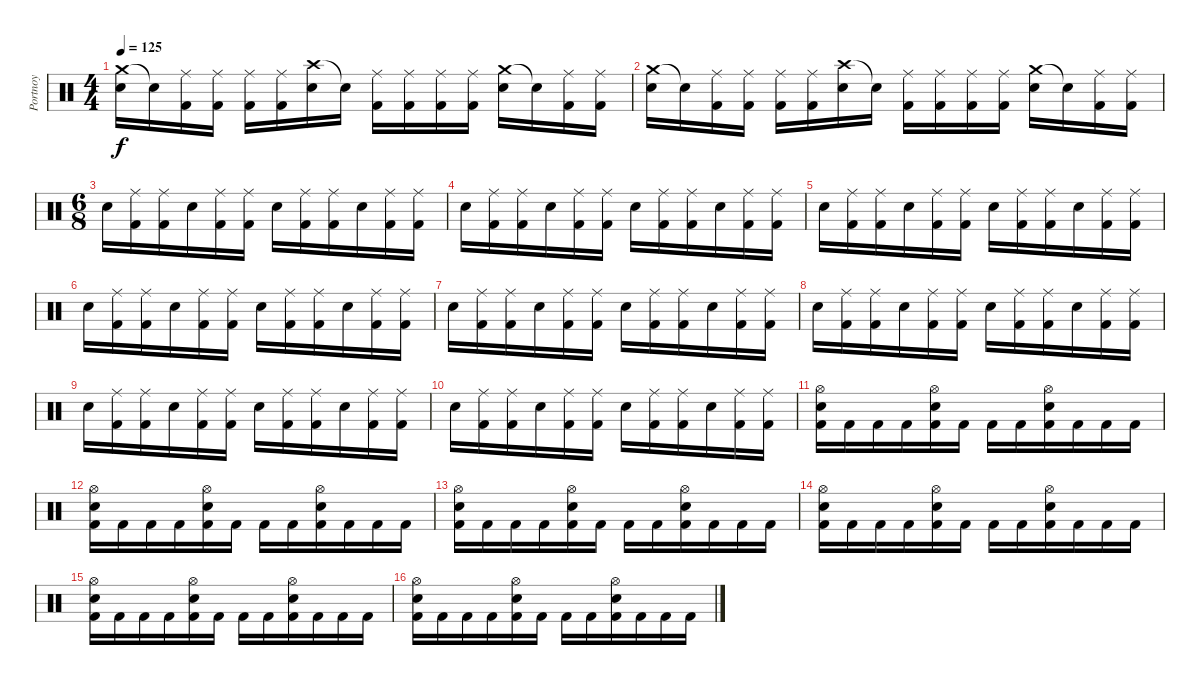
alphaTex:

\track ("Portnoy" "Portnoy") {instrument percussion}
\staff {score}
\articulation defaults
\ts (4 4)
\tempo 125
\clef neutral
\ks c
("Crash medium (hit)" "Snare (hit) 2").16{dy f} "Snare (hit)"{t}.16 ("Ride (middle)" "Kick (hit) 2").16 ("Ride (middle)" "Kick (hit) 2").16 ("Ride (middle)" "Kick (hit) 2").16 ("Ride (middle)" "Kick (hit) 2").16 ("Crash high (hit)" "Snare (hit) 2").16 "Snare (hit)"{t}.16 ("Ride (middle)" "Kick (hit) 2").16 ("Ride (middle)" "Kick (hit) 2").16 ("Ride (middle)" "Kick (hit) 2").16 ("Ride (middle)" "Kick (hit) 2").16 ("Crash medium (hit)" "Snare (hit) 2").16 "Snare (hit)"{t}.16 ("Ride (middle)" "Kick (hit) 2").16 ("Ride (middle)" "Kick (hit) 2").16 |
("Crash medium (hit)" "Snare (hit) 2").16 "Snare (hit)"{t}.16 ("Ride (middle)" "Kick (hit) 2").16 ("Ride (middle)" "Kick (hit) 2").16 ("Ride (middle)" "Kick (hit) 2").16 ("Ride (middle)" "Kick (hit) 2").16 ("Crash high (hit)" "Snare (hit) 2").16 "Snare (hit)"{t}.16 ("Ride (middle)" "Kick (hit) 2").16 ("Ride (middle)" "Kick (hit) 2").16 ("Ride (middle)" "Kick (hit) 2").16 ("Ride (middle)" "Kick (hit) 2").16 ("Crash medium (hit)" "Snare (hit) 2").16 "Snare (hit)"{t}.16 ("Ride (middle)" "Kick (hit) 2").16 ("Ride (middle)" "Kick (hit) 2").16 |
\ts (6 8)
"Snare (hit) 2".16 ("Ride (middle)" "Kick (hit) 2").16 ("Ride (middle)" "Kick (hit) 2").16 "Snare (hit) 2".16 ("Ride (middle)" "Kick (hit) 2").16 ("Ride (middle)" "Kick (hit) 2").16 "Snare (hit) 2".16 ("Ride (middle)" "Kick (hit) 2").16 ("Ride (middle)" "Kick (hit) 2").16 "Snare (hit) 2".16 ("Ride (middle)" "Kick (hit) 2").16 ("Ride (middle)" "Kick (hit) 2").16 |
"Snare (hit) 2".16 ("Ride (middle)" "Kick (hit) 2").16 ("Ride (middle)" "Kick (hit) 2").16 "Snare (hit) 2".16 ("Ride (middle)" "Kick (hit) 2").16 ("Ride (middle)" "Kick (hit) 2").16 "Snare (hit) 2".16 ("Ride (middle)" "Kick (hit) 2").16 ("Ride (middle)" "Kick (hit) 2").16 "Snare (hit) 2".16 ("Ride (middle)" "Kick (hit) 2").16 ("Ride (middle)" "Kick (hit) 2").16 |
"Snare (hit) 2".16 ("Ride (middle)" "Kick (hit) 2").16 ("Ride (middle)" "Kick (hit) 2").16 "Snare (hit) 2".16 ("Ride (middle)" "Kick (hit) 2").16 ("Ride (middle)" "Kick (hit) 2").16 "Snare (hit) 2".16 ("Ride (middle)" "Kick (hit) 2").16 ("Ride (middle)" "Kick (hit) 2").16 "Snare (hit) 2".16 ("Ride (middle)" "Kick (hit) 2").16 ("Ride (middle)" "Kick (hit) 2").16 |
"Snare (hit) 2".16 ("Ride (middle)" "Kick (hit) 2").16 ("Ride (middle)" "Kick (hit) 2").16 "Snare (hit) 2".16 ("Ride (middle)" "Kick (hit) 2").16 ("Ride (middle)" "Kick (hit) 2").16 "Snare (hit) 2".16 ("Ride (middle)" "Kick (hit) 2").16 ("Ride (middle)" "Kick (hit) 2").16 "Snare (hit) 2".16 ("Ride (middle)" "Kick (hit) 2").16 ("Ride (middle)" "Kick (hit) 2").16 |
"Snare (hit) 2".16 ("Ride (middle)" "Kick (hit) 2").16 ("Ride (middle)" "Kick (hit) 2").16 "Snare (hit) 2".16 ("Ride (middle)" "Kick (hit) 2").16 ("Ride (middle)" "Kick (hit) 2").16 "Snare (hit) 2".16 ("Ride (middle)" "Kick (hit) 2").16 ("Ride (middle)" "Kick (hit) 2").16 "Snare (hit) 2".16 ("Ride (middle)" "Kick (hit) 2").16 ("Ride (middle)" "Kick (hit) 2").16 |
"Snare (hit) 2".16 ("Ride (middle)" "Kick (hit) 2").16 ("Ride (middle)" "Kick (hit) 2").16 "Snare (hit) 2".16 ("Ride (middle)" "Kick (hit) 2").16 ("Ride (middle)" "Kick (hit) 2").16 "Snare (hit) 2".16 ("Ride (middle)" "Kick (hit) 2").16 ("Ride (middle)" "Kick (hit) 2").16 "Snare (hit) 2".16 ("Ride (middle)" "Kick (hit) 2").16 ("Ride (middle)" "Kick (hit) 2").16 |
"Snare (hit) 2".16 ("Ride (middle)" "Kick (hit) 2").16 ("Ride (middle)" "Kick (hit) 2").16 "Snare (hit) 2".16 ("Ride (middle)" "Kick (hit) 2").16 ("Ride (middle)" "Kick (hit) 2").16 "Snare (hit) 2".16 ("Ride (middle)" "Kick (hit) 2").16 ("Ride (middle)" "Kick (hit) 2").16 "Snare (hit) 2".16 ("Ride (middle)" "Kick (hit) 2").16 ("Ride (middle)" "Kick (hit) 2").16 |
"Snare (hit) 2".16 ("Ride (middle)" "Kick (hit) 2").16 ("Ride (middle)" "Kick (hit) 2").16 "Snare (hit) 2".16 ("Ride (middle)" "Kick (hit) 2").16 ("Ride (middle)" "Kick (hit) 2").16 "Snare (hit) 2".16 ("Ride (middle)" "Kick (hit) 2").16 ("Ride (middle)" "Kick (hit) 2").16 "Snare (hit) 2".16 ("Ride (middle)" "Kick (hit) 2").16 ("Ride (middle)" "Kick (hit) 2").16 |
("Hi-Hat (open)" "Snare (hit) 2" "Kick (hit) 2").16 "Kick (hit) 2".16 "Kick (hit) 2".16 "Kick (hit) 2".16 ("Hi-Hat (open)" "Snare (hit) 2" "Kick (hit) 2").16 "Kick (hit) 2".16 "Kick (hit) 2".16 "Kick (hit) 2".16 ("Hi-Hat (open)" "Snare (hit) 2" "Kick (hit) 2").16 "Kick (hit) 2".16 "Kick (hit) 2".16 "Kick (hit) 2".16 |
("Hi-Hat (open)" "Snare (hit) 2" "Kick (hit) 2").16 "Kick (hit) 2".16 "Kick (hit) 2".16 "Kick (hit) 2".16 ("Hi-Hat (open)" "Snare (hit) 2" "Kick (hit) 2").16 "Kick (hit) 2".16 "Kick (hit) 2".16 "Kick (hit) 2".16 ("Hi-Hat (open)" "Snare (hit) 2" "Kick (hit) 2").16 "Kick (hit) 2".16 "Kick (hit) 2".16 "Kick (hit) 2".16 |
("Hi-Hat (open)" "Snare (hit) 2" "Kick (hit) 2").16 "Kick (hit) 2".16 "Kick (hit) 2".16 "Kick (hit) 2".16 ("Hi-Hat (open)" "Snare (hit) 2" "Kick (hit) 2").16 "Kick (hit) 2".16 "Kick (hit) 2".16 "Kick (hit) 2".16 ("Hi-Hat (open)" "Snare (hit) 2" "Kick (hit) 2").16 "Kick (hit) 2".16 "Kick (hit) 2".16 "Kick (hit) 2".16 |
("Hi-Hat (open)" "Snare (hit) 2" "Kick (hit) 2").16 "Kick (hit) 2".16 "Kick (hit) 2".16 "Kick (hit) 2".16 ("Hi-Hat (open)" "Snare (hit) 2" "Kick (hit) 2").16 "Kick (hit) 2".16 "Kick (hit) 2".16 "Kick (hit) 2".16 ("Hi-Hat (open)" "Snare (hit) 2" "Kick (hit) 2").16 "Kick (hit) 2".16 "Kick (hit) 2".16 "Kick (hit) 2".16 |
("Hi-Hat (open)" "Snare (hit) 2" "Kick (hit) 2").16 "Kick (hit) 2".16 "Kick (hit) 2".16 "Kick (hit) 2".16 ("Hi-Hat (open)" "Snare (hit) 2" "Kick (hit) 2").16 "Kick (hit) 2".16 "Kick (hit) 2".16 "Kick (hit) 2".16 ("Hi-Hat (open)" "Snare (hit) 2" "Kick (hit) 2").16 "Kick (hit) 2".16 "Kick (hit) 2".16 "Kick (hit) 2".16 |
("Hi-Hat (open)" "Snare (hit) 2" "Kick (hit) 2").16 "Kick (hit) 2".16 "Kick (hit) 2".16 "Kick (hit) 2".16 ("Hi-Hat (open)" "Snare (hit) 2" "Kick (hit) 2").16 "Kick (hit) 2".16 "Kick (hit) 2".16 "Kick (hit) 2".16 ("Hi-Hat (open)" "Snare (hit) 2" "Kick (hit) 2").16 "Kick (hit) 2".16 "Kick (hit) 2".16 "Kick (hit) 2".16
